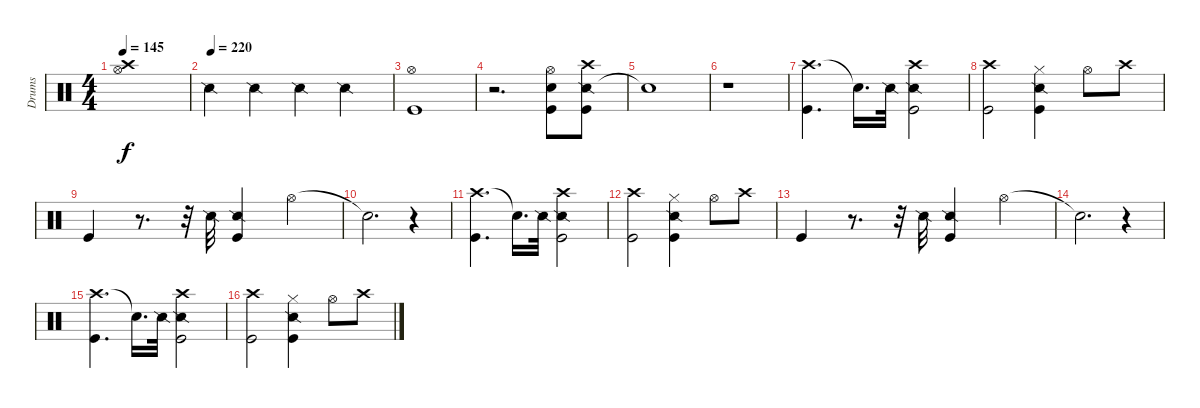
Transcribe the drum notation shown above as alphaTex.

\track ("Drums" "Drums") {instrument percussion}
\staff {score}
\articulation defaults
\ts (4 4)
\tempo 145
\clef neutral
\ks c
("Hi-Hat (open)" "Crash high (hit)").1{dy f} |
\tempo (220)
"Snare (side stick) 2".4 "Snare (side stick) 2".4 "Snare (side stick) 2".4 "Snare (side stick) 2".4 |
("Kick (hit)" "Hi-Hat (open)").1 |
r.2{d} ("Snare (hit) 2" "Hi-Hat (open)" "Kick (hit)").8 ("Snare (side stick) 2" "Crash high (hit)" "Kick (hit)").8 |
"Snare (hit)"{t}.1 |
r.1 |
("Crash high (hit)" "Kick (hit)").4{d} "Snare (hit)"{t}.16{d} "Snare (side stick) 2".32 ("Crash high (hit)" "Snare (side stick) 2" "Kick (hit)").2 |
("Crash high (hit)" "Kick (hit)").2 ("Hi-Hat (closed)" "Snare (side stick) 2" "Kick (hit)").4 "Hi-Hat (open)".8 "Crash high (hit)".8 |
"Kick (hit)".4 r.8{d} r.32 "Snare (side stick) 2".32 ("Snare (side stick) 2" "Kick (hit)").4 "Hi-Hat (open)".4 |
"Snare (hit)"{t}.2{d} r.4 |
("Crash high (hit)" "Kick (hit)").4{d} "Snare (hit)"{t}.16{d} "Snare (side stick) 2".32 ("Crash high (hit)" "Snare (side stick) 2" "Kick (hit)").2 |
("Crash high (hit)" "Kick (hit)").2 ("Hi-Hat (closed)" "Snare (side stick) 2" "Kick (hit)").4 "Hi-Hat (open)".8 "Crash high (hit)".8 |
"Kick (hit)".4 r.8{d} r.32 "Snare (side stick) 2".32 ("Snare (side stick) 2" "Kick (hit)").4 "Hi-Hat (open)".4 |
"Snare (hit)"{t}.2{d} r.4 |
("Crash high (hit)" "Kick (hit)").4{d} "Snare (hit)"{t}.16{d} "Snare (side stick) 2".32 ("Crash high (hit)" "Snare (side stick) 2" "Kick (hit)").2 |
("Crash high (hit)" "Kick (hit)").2 ("Hi-Hat (closed)" "Snare (side stick) 2" "Kick (hit)").4 "Hi-Hat (open)".8 "Crash high (hit)".8
